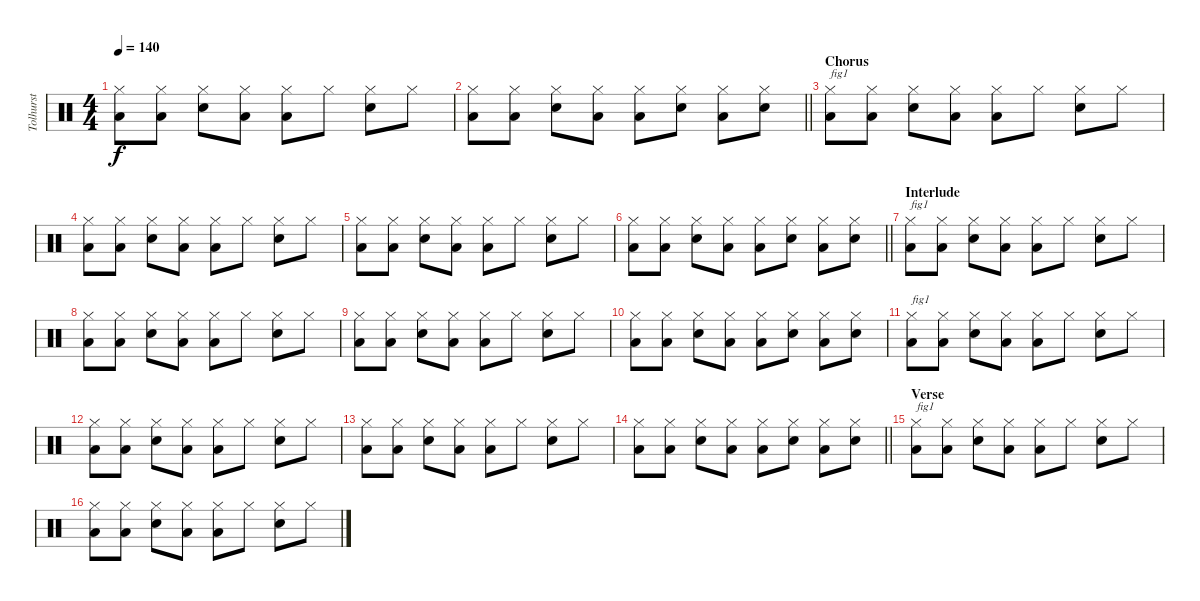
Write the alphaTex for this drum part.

\track ("Tolhurst" "Tolhurst") {instrument percussion}
\staff {score}
\articulation defaults
\ts (4 4)
\tempo 140
\clef neutral
\ks c
("Low Floor Tom (hit)" "Hi-Hat (closed)").8{dy f} ("Low Floor Tom (hit)" "Hi-Hat (closed)").8 ("Snare (hit) 2" "Hi-Hat (closed)").8 ("Low Floor Tom (hit)" "Hi-Hat (closed)").8 ("Low Floor Tom (hit)" "Hi-Hat (closed)").8 "Hi-Hat (closed)".8 ("Snare (hit) 2" "Hi-Hat (closed)").8 "Hi-Hat (closed)".8 |
\barLineRight lightlight
("Low Floor Tom (hit)" "Hi-Hat (closed)").8 ("Low Floor Tom (hit)" "Hi-Hat (closed)").8 ("Snare (hit) 2" "Hi-Hat (closed)").8 ("Low Floor Tom (hit)" "Hi-Hat (closed)").8 ("Low Floor Tom (hit)" "Hi-Hat (closed)").8 ("Snare (hit) 2" "Hi-Hat (closed)").8 ("Low Floor Tom (hit)" "Hi-Hat (closed)").8 ("Snare (hit) 2" "Hi-Hat (closed)").8 |
\section ("" "Chorus")
("Low Floor Tom (hit)" "Hi-Hat (closed)").8{txt "fig1"} ("Low Floor Tom (hit)" "Hi-Hat (closed)").8 ("Snare (hit) 2" "Hi-Hat (closed)").8 ("Low Floor Tom (hit)" "Hi-Hat (closed)").8 ("Low Floor Tom (hit)" "Hi-Hat (closed)").8 "Hi-Hat (closed)".8 ("Snare (hit) 2" "Hi-Hat (closed)").8 "Hi-Hat (closed)".8 |
("Low Floor Tom (hit)" "Hi-Hat (closed)").8 ("Low Floor Tom (hit)" "Hi-Hat (closed)").8 ("Snare (hit) 2" "Hi-Hat (closed)").8 ("Low Floor Tom (hit)" "Hi-Hat (closed)").8 ("Low Floor Tom (hit)" "Hi-Hat (closed)").8 "Hi-Hat (closed)".8 ("Snare (hit) 2" "Hi-Hat (closed)").8 "Hi-Hat (closed)".8 |
("Low Floor Tom (hit)" "Hi-Hat (closed)").8 ("Low Floor Tom (hit)" "Hi-Hat (closed)").8 ("Snare (hit) 2" "Hi-Hat (closed)").8 ("Low Floor Tom (hit)" "Hi-Hat (closed)").8 ("Low Floor Tom (hit)" "Hi-Hat (closed)").8 "Hi-Hat (closed)".8 ("Snare (hit) 2" "Hi-Hat (closed)").8 "Hi-Hat (closed)".8 |
\barLineRight lightlight
("Low Floor Tom (hit)" "Hi-Hat (closed)").8 ("Low Floor Tom (hit)" "Hi-Hat (closed)").8 ("Snare (hit) 2" "Hi-Hat (closed)").8 ("Low Floor Tom (hit)" "Hi-Hat (closed)").8 ("Low Floor Tom (hit)" "Hi-Hat (closed)").8 ("Snare (hit) 2" "Hi-Hat (closed)").8 ("Low Floor Tom (hit)" "Hi-Hat (closed)").8 ("Snare (hit) 2" "Hi-Hat (closed)").8 |
\section ("" "Interlude")
("Low Floor Tom (hit)" "Hi-Hat (closed)").8{txt "fig1"} ("Low Floor Tom (hit)" "Hi-Hat (closed)").8 ("Snare (hit) 2" "Hi-Hat (closed)").8 ("Low Floor Tom (hit)" "Hi-Hat (closed)").8 ("Low Floor Tom (hit)" "Hi-Hat (closed)").8 "Hi-Hat (closed)".8 ("Snare (hit) 2" "Hi-Hat (closed)").8 "Hi-Hat (closed)".8 |
("Low Floor Tom (hit)" "Hi-Hat (closed)").8 ("Low Floor Tom (hit)" "Hi-Hat (closed)").8 ("Snare (hit) 2" "Hi-Hat (closed)").8 ("Low Floor Tom (hit)" "Hi-Hat (closed)").8 ("Low Floor Tom (hit)" "Hi-Hat (closed)").8 "Hi-Hat (closed)".8 ("Snare (hit) 2" "Hi-Hat (closed)").8 "Hi-Hat (closed)".8 |
("Low Floor Tom (hit)" "Hi-Hat (closed)").8 ("Low Floor Tom (hit)" "Hi-Hat (closed)").8 ("Snare (hit) 2" "Hi-Hat (closed)").8 ("Low Floor Tom (hit)" "Hi-Hat (closed)").8 ("Low Floor Tom (hit)" "Hi-Hat (closed)").8 "Hi-Hat (closed)".8 ("Snare (hit) 2" "Hi-Hat (closed)").8 "Hi-Hat (closed)".8 |
("Low Floor Tom (hit)" "Hi-Hat (closed)").8 ("Low Floor Tom (hit)" "Hi-Hat (closed)").8 ("Snare (hit) 2" "Hi-Hat (closed)").8 ("Low Floor Tom (hit)" "Hi-Hat (closed)").8 ("Low Floor Tom (hit)" "Hi-Hat (closed)").8 ("Snare (hit) 2" "Hi-Hat (closed)").8 ("Low Floor Tom (hit)" "Hi-Hat (closed)").8 ("Snare (hit) 2" "Hi-Hat (closed)").8 |
("Low Floor Tom (hit)" "Hi-Hat (closed)").8{txt "fig1"} ("Low Floor Tom (hit)" "Hi-Hat (closed)").8 ("Snare (hit) 2" "Hi-Hat (closed)").8 ("Low Floor Tom (hit)" "Hi-Hat (closed)").8 ("Low Floor Tom (hit)" "Hi-Hat (closed)").8 "Hi-Hat (closed)".8 ("Snare (hit) 2" "Hi-Hat (closed)").8 "Hi-Hat (closed)".8 |
("Low Floor Tom (hit)" "Hi-Hat (closed)").8 ("Low Floor Tom (hit)" "Hi-Hat (closed)").8 ("Snare (hit) 2" "Hi-Hat (closed)").8 ("Low Floor Tom (hit)" "Hi-Hat (closed)").8 ("Low Floor Tom (hit)" "Hi-Hat (closed)").8 "Hi-Hat (closed)".8 ("Snare (hit) 2" "Hi-Hat (closed)").8 "Hi-Hat (closed)".8 |
("Low Floor Tom (hit)" "Hi-Hat (closed)").8 ("Low Floor Tom (hit)" "Hi-Hat (closed)").8 ("Snare (hit) 2" "Hi-Hat (closed)").8 ("Low Floor Tom (hit)" "Hi-Hat (closed)").8 ("Low Floor Tom (hit)" "Hi-Hat (closed)").8 "Hi-Hat (closed)".8 ("Snare (hit) 2" "Hi-Hat (closed)").8 "Hi-Hat (closed)".8 |
\barLineRight lightlight
("Low Floor Tom (hit)" "Hi-Hat (closed)").8 ("Low Floor Tom (hit)" "Hi-Hat (closed)").8 ("Snare (hit) 2" "Hi-Hat (closed)").8 ("Low Floor Tom (hit)" "Hi-Hat (closed)").8 ("Low Floor Tom (hit)" "Hi-Hat (closed)").8 ("Snare (hit) 2" "Hi-Hat (closed)").8 ("Low Floor Tom (hit)" "Hi-Hat (closed)").8 ("Snare (hit) 2" "Hi-Hat (closed)").8 |
\section ("" "Verse")
("Low Floor Tom (hit)" "Hi-Hat (closed)").8{txt "fig1"} ("Low Floor Tom (hit)" "Hi-Hat (closed)").8 ("Snare (hit) 2" "Hi-Hat (closed)").8 ("Low Floor Tom (hit)" "Hi-Hat (closed)").8 ("Low Floor Tom (hit)" "Hi-Hat (closed)").8 "Hi-Hat (closed)".8 ("Snare (hit) 2" "Hi-Hat (closed)").8 "Hi-Hat (closed)".8 |
("Low Floor Tom (hit)" "Hi-Hat (closed)").8 ("Low Floor Tom (hit)" "Hi-Hat (closed)").8 ("Snare (hit) 2" "Hi-Hat (closed)").8 ("Low Floor Tom (hit)" "Hi-Hat (closed)").8 ("Low Floor Tom (hit)" "Hi-Hat (closed)").8 "Hi-Hat (closed)".8 ("Snare (hit) 2" "Hi-Hat (closed)").8 "Hi-Hat (closed)".8
